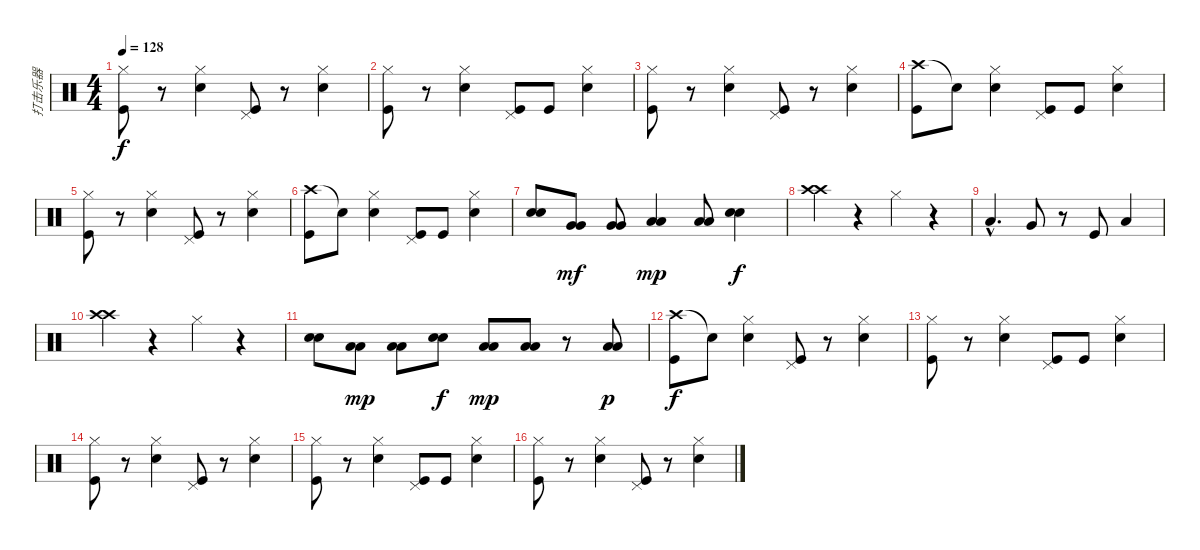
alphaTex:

\track ("打击乐器" "打击乐器") {instrument percussion}
\staff {score}
\articulation defaults
\ts (4 4)
\tempo 128
\clef neutral
\ks c
("Hi-Hat (closed)" "Kick (hit)").8{dy f} r.8 ("Hi-Hat (closed)" "Snare (hit) 2").4 ("Pedal Hi-Hat (hit)" "Kick (hit)").8 r.8 ("Hi-Hat (closed)" "Snare (hit) 2").4 |
("Hi-Hat (closed)" "Kick (hit)").8 r.8 ("Hi-Hat (closed)" "Snare (hit) 2").4 ("Pedal Hi-Hat (hit)" "Kick (hit)").8 "Kick (hit)".8 ("Hi-Hat (closed)" "Snare (hit) 2").4 |
("Hi-Hat (closed)" "Kick (hit)").8 r.8 ("Hi-Hat (closed)" "Snare (hit) 2").4 ("Pedal Hi-Hat (hit)" "Kick (hit)").8 r.8 ("Hi-Hat (closed)" "Snare (hit) 2").4 |
("Crash high (hit)" "Kick (hit)").8 "Snare (hit)"{t}.8 ("Hi-Hat (closed)" "Snare (hit) 2").4 ("Pedal Hi-Hat (hit)" "Kick (hit)").8 "Kick (hit)".8 ("Hi-Hat (closed)" "Snare (hit) 2").4 |
("Hi-Hat (closed)" "Kick (hit)").8 r.8 ("Hi-Hat (closed)" "Snare (hit) 2").4 ("Pedal Hi-Hat (hit)" "Kick (hit)").8 r.8 ("Hi-Hat (closed)" "Snare (hit) 2").4 |
("Crash high (hit)" "Kick (hit)").8 "Snare (hit)"{t}.8 ("Hi-Hat (closed)" "Snare (hit) 2").4 ("Pedal Hi-Hat (hit)" "Kick (hit)").8 "Kick (hit)".8 ("Hi-Hat (closed)" "Snare (hit) 2").4 |
("Snare (hit) 2" "Snare (hit) 2").8 ("Very Low Tom (hit)" "Very Low Tom (hit)").8{dy mf} ("Very Low Tom (hit)" "Very Low Tom (hit)").8 ("Low Floor Tom (hit)" "Low Floor Tom (hit)").4{dy mp} ("Low Floor Tom (hit)" "Low Floor Tom (hit)").8 ("Snare (hit) 2" "Snare (hit) 2").4{dy f} |
("Crash high (hit)" "Crash high (hit)").4 r.4 "Hi-Hat (closed)".4 r.4 |
"Low Tom (hit)"{hac}.4{d} "Very Low Tom (hit)".8 r.8 "Kick (hit)".8 "Low Floor Tom (hit)".4 |
("Crash high (hit)" "Crash high (hit)").4 r.4 "Hi-Hat (closed)".4 r.4 |
("Snare (hit) 2" "Snare (hit) 2").8 ("Low Tom (hit)" "Low Tom (hit)").8{dy mp} ("Low Tom (hit)" "Low Tom (hit)").8 ("Snare (hit) 2" "Snare (hit) 2").8{dy f} ("Low Tom (hit)" "Low Tom (hit)").8{dy mp} ("Low Tom (hit)" "Low Tom (hit)").8 r.8 ("Low Floor Tom (hit)" "Low Floor Tom (hit)").8{dy p} |
("Crash high (hit)" "Kick (hit)").8{dy f} "Snare (hit)"{t}.8 ("Hi-Hat (closed)" "Snare (hit) 2").4 ("Pedal Hi-Hat (hit)" "Kick (hit)").8 r.8 ("Hi-Hat (closed)" "Snare (hit) 2").4 |
("Hi-Hat (closed)" "Kick (hit)").8 r.8 ("Hi-Hat (closed)" "Snare (hit) 2").4 ("Pedal Hi-Hat (hit)" "Kick (hit)").8 "Kick (hit)".8 ("Hi-Hat (closed)" "Snare (hit) 2").4 |
("Hi-Hat (closed)" "Kick (hit)").8 r.8 ("Hi-Hat (closed)" "Snare (hit) 2").4 ("Pedal Hi-Hat (hit)" "Kick (hit)").8 r.8 ("Hi-Hat (closed)" "Snare (hit) 2").4 |
("Hi-Hat (closed)" "Kick (hit)").8 r.8 ("Hi-Hat (closed)" "Snare (hit) 2").4 ("Pedal Hi-Hat (hit)" "Kick (hit)").8 "Kick (hit)".8 ("Hi-Hat (closed)" "Snare (hit) 2").4 |
("Hi-Hat (closed)" "Kick (hit)").8 r.8 ("Hi-Hat (closed)" "Snare (hit) 2").4 ("Pedal Hi-Hat (hit)" "Kick (hit)").8 r.8 ("Hi-Hat (closed)" "Snare (hit) 2").4
